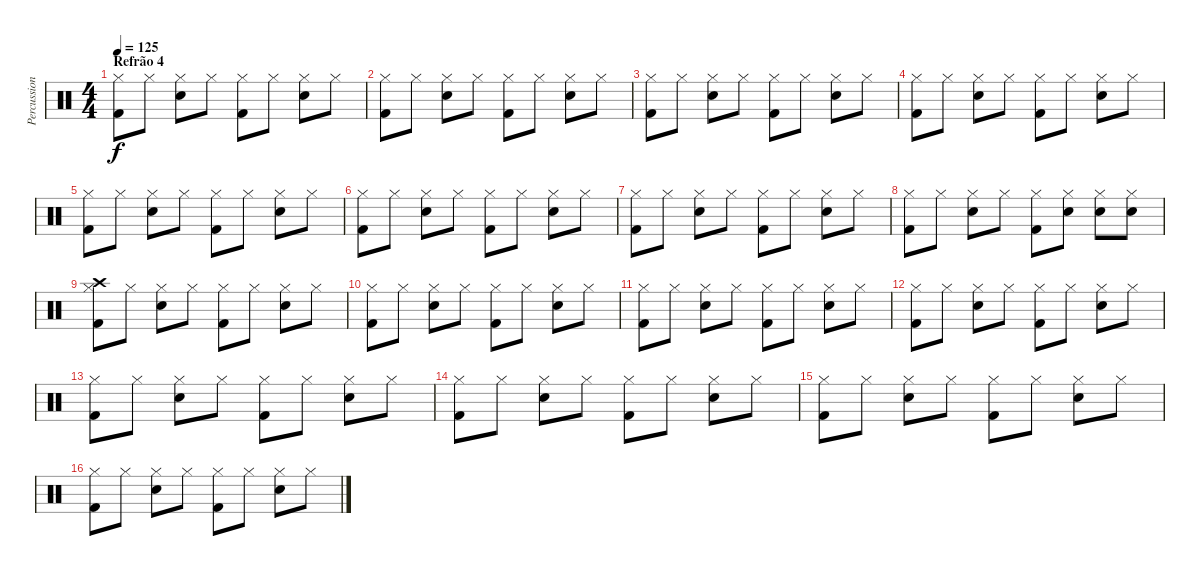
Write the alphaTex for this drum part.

\track ("Percussion" "Percussion") {instrument percussion}
\staff {score}
\articulation defaults
\ts (4 4)
\section ("" "Refrão 4")
\tempo 125
\clef neutral
\ks c
("Kick (hit) 2" "Hi-Hat (closed)").8{dy f} "Hi-Hat (closed)".8 ("Electric Snare (hit)" "Hi-Hat (closed)").8 "Hi-Hat (closed)".8 ("Kick (hit) 2" "Hi-Hat (closed)").8 "Hi-Hat (closed)".8 ("Electric Snare (hit)" "Hi-Hat (closed)").8 "Hi-Hat (closed)".8 |
("Kick (hit) 2" "Hi-Hat (closed)").8 "Hi-Hat (closed)".8 ("Electric Snare (hit)" "Hi-Hat (closed)").8 "Hi-Hat (closed)".8 ("Kick (hit) 2" "Hi-Hat (closed)").8 "Hi-Hat (closed)".8 ("Electric Snare (hit)" "Hi-Hat (closed)").8 "Hi-Hat (closed)".8 |
("Kick (hit) 2" "Hi-Hat (closed)").8 "Hi-Hat (closed)".8 ("Electric Snare (hit)" "Hi-Hat (closed)").8 "Hi-Hat (closed)".8 ("Kick (hit) 2" "Hi-Hat (closed)").8 "Hi-Hat (closed)".8 ("Electric Snare (hit)" "Hi-Hat (closed)").8 "Hi-Hat (closed)".8 |
("Kick (hit) 2" "Hi-Hat (closed)").8 "Hi-Hat (closed)".8 ("Electric Snare (hit)" "Hi-Hat (closed)").8 "Hi-Hat (closed)".8 ("Kick (hit) 2" "Hi-Hat (closed)").8 "Hi-Hat (closed)".8 ("Electric Snare (hit)" "Hi-Hat (closed)").8 "Hi-Hat (closed)".8 |
("Kick (hit) 2" "Hi-Hat (closed)").8 "Hi-Hat (closed)".8 ("Electric Snare (hit)" "Hi-Hat (closed)").8 "Hi-Hat (closed)".8 ("Kick (hit) 2" "Hi-Hat (closed)").8 "Hi-Hat (closed)".8 ("Electric Snare (hit)" "Hi-Hat (closed)").8 "Hi-Hat (closed)".8 |
("Kick (hit) 2" "Hi-Hat (closed)").8 "Hi-Hat (closed)".8 ("Electric Snare (hit)" "Hi-Hat (closed)").8 "Hi-Hat (closed)".8 ("Kick (hit) 2" "Hi-Hat (closed)").8 "Hi-Hat (closed)".8 ("Electric Snare (hit)" "Hi-Hat (closed)").8 "Hi-Hat (closed)".8 |
("Kick (hit) 2" "Hi-Hat (closed)").8 "Hi-Hat (closed)".8 ("Electric Snare (hit)" "Hi-Hat (closed)").8 "Hi-Hat (closed)".8 ("Kick (hit) 2" "Hi-Hat (closed)").8 "Hi-Hat (closed)".8 ("Electric Snare (hit)" "Hi-Hat (closed)").8 "Hi-Hat (closed)".8 |
("Kick (hit) 2" "Hi-Hat (closed)").8 "Hi-Hat (closed)".8 ("Electric Snare (hit)" "Hi-Hat (closed)").8 "Hi-Hat (closed)".8 ("Kick (hit) 2" "Hi-Hat (closed)").8 ("Electric Snare (hit)" "Hi-Hat (closed)").8 ("Electric Snare (hit)" "Hi-Hat (closed)").8 ("Electric Snare (hit)" "Hi-Hat (closed)").8 |
("Kick (hit) 2" "Hi-Hat (closed)" "Crash high (hit)").8 "Hi-Hat (closed)".8 ("Electric Snare (hit)" "Hi-Hat (closed)").8 "Hi-Hat (closed)".8 ("Kick (hit) 2" "Hi-Hat (closed)").8 "Hi-Hat (closed)".8 ("Electric Snare (hit)" "Hi-Hat (closed)").8 "Hi-Hat (closed)".8 |
("Kick (hit) 2" "Hi-Hat (closed)").8 "Hi-Hat (closed)".8 ("Electric Snare (hit)" "Hi-Hat (closed)").8 "Hi-Hat (closed)".8 ("Kick (hit) 2" "Hi-Hat (closed)").8 "Hi-Hat (closed)".8 ("Electric Snare (hit)" "Hi-Hat (closed)").8 "Hi-Hat (closed)".8 |
("Kick (hit) 2" "Hi-Hat (closed)").8 "Hi-Hat (closed)".8 ("Electric Snare (hit)" "Hi-Hat (closed)").8 "Hi-Hat (closed)".8 ("Kick (hit) 2" "Hi-Hat (closed)").8 "Hi-Hat (closed)".8 ("Electric Snare (hit)" "Hi-Hat (closed)").8 "Hi-Hat (closed)".8 |
("Kick (hit) 2" "Hi-Hat (closed)").8 "Hi-Hat (closed)".8 ("Electric Snare (hit)" "Hi-Hat (closed)").8 "Hi-Hat (closed)".8 ("Kick (hit) 2" "Hi-Hat (closed)").8 "Hi-Hat (closed)".8 ("Electric Snare (hit)" "Hi-Hat (closed)").8 "Hi-Hat (closed)".8 |
("Kick (hit) 2" "Hi-Hat (closed)").8 "Hi-Hat (closed)".8 ("Electric Snare (hit)" "Hi-Hat (closed)").8 "Hi-Hat (closed)".8 ("Kick (hit) 2" "Hi-Hat (closed)").8 "Hi-Hat (closed)".8 ("Electric Snare (hit)" "Hi-Hat (closed)").8 "Hi-Hat (closed)".8 |
("Kick (hit) 2" "Hi-Hat (closed)").8 "Hi-Hat (closed)".8 ("Electric Snare (hit)" "Hi-Hat (closed)").8 "Hi-Hat (closed)".8 ("Kick (hit) 2" "Hi-Hat (closed)").8 "Hi-Hat (closed)".8 ("Electric Snare (hit)" "Hi-Hat (closed)").8 "Hi-Hat (closed)".8 |
("Kick (hit) 2" "Hi-Hat (closed)").8 "Hi-Hat (closed)".8 ("Electric Snare (hit)" "Hi-Hat (closed)").8 "Hi-Hat (closed)".8 ("Kick (hit) 2" "Hi-Hat (closed)").8 "Hi-Hat (closed)".8 ("Electric Snare (hit)" "Hi-Hat (closed)").8 "Hi-Hat (closed)".8 |
("Kick (hit) 2" "Hi-Hat (closed)").8 "Hi-Hat (closed)".8 ("Electric Snare (hit)" "Hi-Hat (closed)").8 "Hi-Hat (closed)".8 ("Kick (hit) 2" "Hi-Hat (closed)").8 "Hi-Hat (closed)".8 ("Electric Snare (hit)" "Hi-Hat (closed)").8 "Hi-Hat (closed)".8
